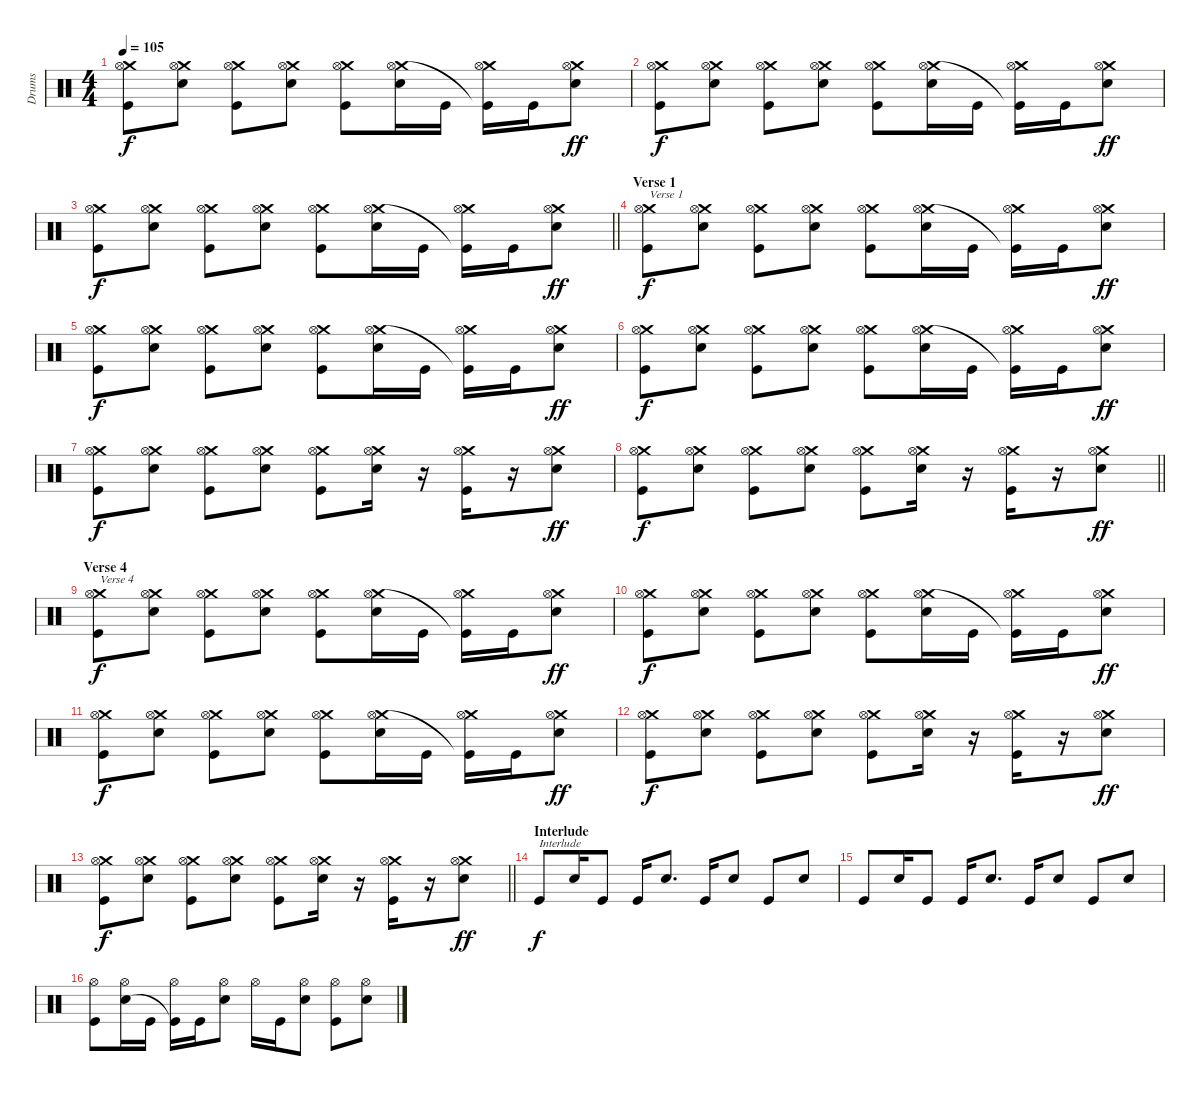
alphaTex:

\track ("Drums" "Drums") {instrument percussion}
\staff {score}
\articulation defaults
\ts (4 4)
\tempo 105
\clef neutral
\ks c
("Crash medium (hit)" "Hi-Hat (open)" "Kick (hit)").8{dy f} ("Crash medium (hit)" "Electric Snare (hit)" "Hi-Hat (open)").8 ("Crash medium (hit)" "Hi-Hat (open)" "Kick (hit)").8 ("Crash medium (hit)" "Electric Snare (hit)" "Hi-Hat (open)").8 ("Crash medium (hit)" "Hi-Hat (open)" "Kick (hit)").8 ("Crash medium (hit)" "Electric Snare (hit)" "Hi-Hat (open)").16 "Kick (hit)".16 ("Crash medium (hit)" "Hi-Hat (open)" "Kick (hit)"{t}).16 "Kick (hit)".16 ("Crash medium (hit)" "Electric Snare (hit)" "Hi-Hat (open)").8{dy ff} |
("Crash medium (hit)" "Hi-Hat (open)" "Kick (hit)").8{dy f} ("Crash medium (hit)" "Electric Snare (hit)" "Hi-Hat (open)").8 ("Crash medium (hit)" "Hi-Hat (open)" "Kick (hit)").8 ("Crash medium (hit)" "Electric Snare (hit)" "Hi-Hat (open)").8 ("Crash medium (hit)" "Hi-Hat (open)" "Kick (hit)").8 ("Crash medium (hit)" "Electric Snare (hit)" "Hi-Hat (open)").16 "Kick (hit)".16 ("Crash medium (hit)" "Hi-Hat (open)" "Kick (hit)"{t}).16 "Kick (hit)".16 ("Crash medium (hit)" "Electric Snare (hit)" "Hi-Hat (open)").8{dy ff} |
\barLineRight lightlight
("Crash medium (hit)" "Hi-Hat (open)" "Kick (hit)").8{dy f} ("Crash medium (hit)" "Electric Snare (hit)" "Hi-Hat (open)").8 ("Crash medium (hit)" "Hi-Hat (open)" "Kick (hit)").8 ("Crash medium (hit)" "Electric Snare (hit)" "Hi-Hat (open)").8 ("Crash medium (hit)" "Hi-Hat (open)" "Kick (hit)").8 ("Crash medium (hit)" "Electric Snare (hit)" "Hi-Hat (open)").16 "Kick (hit)".16 ("Crash medium (hit)" "Hi-Hat (open)" "Kick (hit)"{t}).16 "Kick (hit)".16 ("Crash medium (hit)" "Electric Snare (hit)" "Hi-Hat (open)").8{dy ff} |
\section ("" "Verse 1")
("Crash medium (hit)" "Hi-Hat (open)" "Kick (hit)").8{txt "Verse 1" dy f} ("Crash medium (hit)" "Electric Snare (hit)" "Hi-Hat (open)").8 ("Crash medium (hit)" "Hi-Hat (open)" "Kick (hit)").8 ("Crash medium (hit)" "Electric Snare (hit)" "Hi-Hat (open)").8 ("Crash medium (hit)" "Hi-Hat (open)" "Kick (hit)").8 ("Crash medium (hit)" "Electric Snare (hit)" "Hi-Hat (open)").16 "Kick (hit)".16 ("Crash medium (hit)" "Hi-Hat (open)" "Kick (hit)"{t}).16 "Kick (hit)".16 ("Crash medium (hit)" "Electric Snare (hit)" "Hi-Hat (open)").8{dy ff} |
("Crash medium (hit)" "Hi-Hat (open)" "Kick (hit)").8{dy f} ("Crash medium (hit)" "Electric Snare (hit)" "Hi-Hat (open)").8 ("Crash medium (hit)" "Hi-Hat (open)" "Kick (hit)").8 ("Crash medium (hit)" "Electric Snare (hit)" "Hi-Hat (open)").8 ("Crash medium (hit)" "Hi-Hat (open)" "Kick (hit)").8 ("Crash medium (hit)" "Electric Snare (hit)" "Hi-Hat (open)").16 "Kick (hit)".16 ("Crash medium (hit)" "Hi-Hat (open)" "Kick (hit)"{t}).16 "Kick (hit)".16 ("Crash medium (hit)" "Electric Snare (hit)" "Hi-Hat (open)").8{dy ff} |
("Crash medium (hit)" "Hi-Hat (open)" "Kick (hit)").8{dy f} ("Crash medium (hit)" "Electric Snare (hit)" "Hi-Hat (open)").8 ("Crash medium (hit)" "Hi-Hat (open)" "Kick (hit)").8 ("Crash medium (hit)" "Electric Snare (hit)" "Hi-Hat (open)").8 ("Crash medium (hit)" "Hi-Hat (open)" "Kick (hit)").8 ("Crash medium (hit)" "Electric Snare (hit)" "Hi-Hat (open)").16 "Kick (hit)".16 ("Crash medium (hit)" "Hi-Hat (open)" "Kick (hit)"{t}).16 "Kick (hit)".16 ("Crash medium (hit)" "Electric Snare (hit)" "Hi-Hat (open)").8{dy ff} |
("Crash medium (hit)" "Hi-Hat (open)" "Kick (hit)").8{dy f} ("Crash medium (hit)" "Electric Snare (hit)" "Hi-Hat (open)").8 ("Crash medium (hit)" "Hi-Hat (open)" "Kick (hit)").8 ("Crash medium (hit)" "Electric Snare (hit)" "Hi-Hat (open)").8 ("Crash medium (hit)" "Hi-Hat (open)" "Kick (hit)").8 ("Crash medium (hit)" "Electric Snare (hit)" "Hi-Hat (open)").16 r.16 ("Crash medium (hit)" "Hi-Hat (open)" "Kick (hit)").16 r.16 ("Crash medium (hit)" "Electric Snare (hit)" "Hi-Hat (open)").8{dy ff} |
\barLineRight lightlight
("Crash medium (hit)" "Hi-Hat (open)" "Kick (hit)").8{dy f} ("Crash medium (hit)" "Electric Snare (hit)" "Hi-Hat (open)").8 ("Crash medium (hit)" "Hi-Hat (open)" "Kick (hit)").8 ("Crash medium (hit)" "Electric Snare (hit)" "Hi-Hat (open)").8 ("Crash medium (hit)" "Hi-Hat (open)" "Kick (hit)").8 ("Crash medium (hit)" "Electric Snare (hit)" "Hi-Hat (open)").16 r.16 ("Crash medium (hit)" "Hi-Hat (open)" "Kick (hit)").16 r.16 ("Crash medium (hit)" "Electric Snare (hit)" "Hi-Hat (open)").8{dy ff} |
\section ("" "Verse 4")
("Crash medium (hit)" "Hi-Hat (open)" "Kick (hit)").8{txt "Verse 4" dy f} ("Crash medium (hit)" "Electric Snare (hit)" "Hi-Hat (open)").8 ("Crash medium (hit)" "Hi-Hat (open)" "Kick (hit)").8 ("Crash medium (hit)" "Electric Snare (hit)" "Hi-Hat (open)").8 ("Crash medium (hit)" "Hi-Hat (open)" "Kick (hit)").8 ("Crash medium (hit)" "Electric Snare (hit)" "Hi-Hat (open)").16 "Kick (hit)".16 ("Crash medium (hit)" "Hi-Hat (open)" "Kick (hit)"{t}).16 "Kick (hit)".16 ("Crash medium (hit)" "Electric Snare (hit)" "Hi-Hat (open)").8{dy ff} |
("Crash medium (hit)" "Hi-Hat (open)" "Kick (hit)").8{dy f} ("Crash medium (hit)" "Electric Snare (hit)" "Hi-Hat (open)").8 ("Crash medium (hit)" "Hi-Hat (open)" "Kick (hit)").8 ("Crash medium (hit)" "Electric Snare (hit)" "Hi-Hat (open)").8 ("Crash medium (hit)" "Hi-Hat (open)" "Kick (hit)").8 ("Crash medium (hit)" "Electric Snare (hit)" "Hi-Hat (open)").16 "Kick (hit)".16 ("Crash medium (hit)" "Hi-Hat (open)" "Kick (hit)"{t}).16 "Kick (hit)".16 ("Crash medium (hit)" "Electric Snare (hit)" "Hi-Hat (open)").8{dy ff} |
("Crash medium (hit)" "Hi-Hat (open)" "Kick (hit)").8{dy f} ("Crash medium (hit)" "Electric Snare (hit)" "Hi-Hat (open)").8 ("Crash medium (hit)" "Hi-Hat (open)" "Kick (hit)").8 ("Crash medium (hit)" "Electric Snare (hit)" "Hi-Hat (open)").8 ("Crash medium (hit)" "Hi-Hat (open)" "Kick (hit)").8 ("Crash medium (hit)" "Electric Snare (hit)" "Hi-Hat (open)").16 "Kick (hit)".16 ("Crash medium (hit)" "Hi-Hat (open)" "Kick (hit)"{t}).16 "Kick (hit)".16 ("Crash medium (hit)" "Electric Snare (hit)" "Hi-Hat (open)").8{dy ff} |
("Crash medium (hit)" "Hi-Hat (open)" "Kick (hit)").8{dy f} ("Crash medium (hit)" "Electric Snare (hit)" "Hi-Hat (open)").8 ("Crash medium (hit)" "Hi-Hat (open)" "Kick (hit)").8 ("Crash medium (hit)" "Electric Snare (hit)" "Hi-Hat (open)").8 ("Crash medium (hit)" "Hi-Hat (open)" "Kick (hit)").8 ("Crash medium (hit)" "Electric Snare (hit)" "Hi-Hat (open)").16 r.16 ("Crash medium (hit)" "Hi-Hat (open)" "Kick (hit)").16 r.16 ("Crash medium (hit)" "Electric Snare (hit)" "Hi-Hat (open)").8{dy ff} |
\barLineRight lightlight
("Crash medium (hit)" "Hi-Hat (open)" "Kick (hit)").8{dy f} ("Crash medium (hit)" "Electric Snare (hit)" "Hi-Hat (open)").8 ("Crash medium (hit)" "Hi-Hat (open)" "Kick (hit)").8 ("Crash medium (hit)" "Electric Snare (hit)" "Hi-Hat (open)").8 ("Crash medium (hit)" "Hi-Hat (open)" "Kick (hit)").8 ("Crash medium (hit)" "Electric Snare (hit)" "Hi-Hat (open)").16 r.16 ("Crash medium (hit)" "Hi-Hat (open)" "Kick (hit)").16 r.16 ("Crash medium (hit)" "Electric Snare (hit)" "Hi-Hat (open)").8{dy ff} |
\section ("" "Interlude")
"Kick (hit)".8{txt "Interlude" dy f} "Electric Snare (hit)".16 "Kick (hit)".8 "Kick (hit)".16 "Electric Snare (hit)".8{d} "Kick (hit)".16 "Electric Snare (hit)".8 "Kick (hit)".8 "Electric Snare (hit)".8 |
"Kick (hit)".8 "Electric Snare (hit)".16 "Kick (hit)".8 "Kick (hit)".16 "Electric Snare (hit)".8{d} "Kick (hit)".16 "Electric Snare (hit)".8 "Kick (hit)".8 "Electric Snare (hit)".8 |
("Hi-Hat (open)" "Kick (hit)").8 ("Hi-Hat (open)" "Electric Snare (hit)").16 "Kick (hit)".16 ("Hi-Hat (open)" "Kick (hit)"{t}).16 "Kick (hit)".16 ("Hi-Hat (open)" "Electric Snare (hit)").8 "Hi-Hat (open)".16 "Kick (hit)".16 ("Hi-Hat (open)" "Electric Snare (hit)").8 ("Hi-Hat (open)" "Kick (hit)").8 ("Hi-Hat (open)" "Electric Snare (hit)").8
